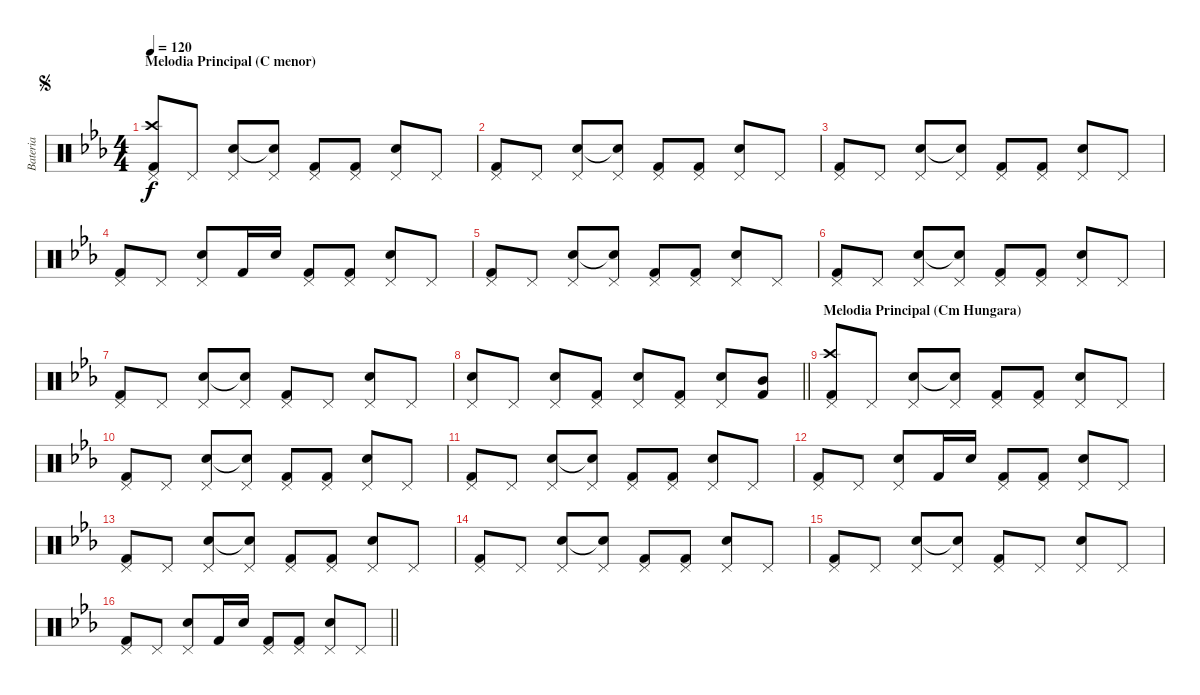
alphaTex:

\track ("Bateria" "Bateria") {instrument percussion}
\staff {score}
\articulation defaults
\ts (4 4)
\section ("" "Melodia Principal (C menor)")
\jump segno
\tempo 120
\clef neutral
\ks eb
("Pedal Hi-Hat (hit)" "Crash high (hit)" "Kick (hit) 2").8{dy f} "Pedal Hi-Hat (hit)".8 ("Pedal Hi-Hat (hit)" "Snare (hit) 2").8 ("Pedal Hi-Hat (hit)" "Snare (hit)"{t}).8 ("Pedal Hi-Hat (hit)" "Kick (hit) 2").8 ("Pedal Hi-Hat (hit)" "Kick (hit) 2").8 ("Pedal Hi-Hat (hit)" "Snare (hit) 2").8 "Pedal Hi-Hat (hit)".8 |
("Pedal Hi-Hat (hit)" "Kick (hit) 2").8 "Pedal Hi-Hat (hit)".8 ("Pedal Hi-Hat (hit)" "Snare (hit) 2").8 ("Pedal Hi-Hat (hit)" "Snare (hit)"{t}).8 ("Pedal Hi-Hat (hit)" "Kick (hit) 2").8 ("Pedal Hi-Hat (hit)" "Kick (hit) 2").8 ("Pedal Hi-Hat (hit)" "Snare (hit) 2").8 "Pedal Hi-Hat (hit)".8 |
("Pedal Hi-Hat (hit)" "Kick (hit) 2").8 "Pedal Hi-Hat (hit)".8 ("Pedal Hi-Hat (hit)" "Snare (hit) 2").8 ("Pedal Hi-Hat (hit)" "Snare (hit)"{t}).8 ("Pedal Hi-Hat (hit)" "Kick (hit) 2").8 ("Pedal Hi-Hat (hit)" "Kick (hit) 2").8 ("Pedal Hi-Hat (hit)" "Snare (hit) 2").8 "Pedal Hi-Hat (hit)".8 |
("Pedal Hi-Hat (hit)" "Kick (hit) 2").8 "Pedal Hi-Hat (hit)".8 ("Pedal Hi-Hat (hit)" "Snare (hit) 2").8 "Kick (hit) 2".16 "Snare (hit) 2".16 ("Pedal Hi-Hat (hit)" "Kick (hit) 2").8 ("Pedal Hi-Hat (hit)" "Kick (hit) 2").8 ("Pedal Hi-Hat (hit)" "Snare (hit) 2").8 "Pedal Hi-Hat (hit)".8 |
("Pedal Hi-Hat (hit)" "Kick (hit) 2").8 "Pedal Hi-Hat (hit)".8 ("Pedal Hi-Hat (hit)" "Snare (hit) 2").8 ("Pedal Hi-Hat (hit)" "Snare (hit)"{t}).8 ("Pedal Hi-Hat (hit)" "Kick (hit) 2").8 ("Pedal Hi-Hat (hit)" "Kick (hit) 2").8 ("Pedal Hi-Hat (hit)" "Snare (hit) 2").8 "Pedal Hi-Hat (hit)".8 |
("Pedal Hi-Hat (hit)" "Kick (hit) 2").8 "Pedal Hi-Hat (hit)".8 ("Pedal Hi-Hat (hit)" "Snare (hit) 2").8 ("Pedal Hi-Hat (hit)" "Snare (hit)"{t}).8 ("Pedal Hi-Hat (hit)" "Kick (hit) 2").8 ("Pedal Hi-Hat (hit)" "Kick (hit) 2").8 ("Pedal Hi-Hat (hit)" "Snare (hit) 2").8 "Pedal Hi-Hat (hit)".8 |
("Pedal Hi-Hat (hit)" "Kick (hit) 2").8 "Pedal Hi-Hat (hit)".8 ("Pedal Hi-Hat (hit)" "Snare (hit) 2").8 ("Pedal Hi-Hat (hit)" "Snare (hit)"{t}).8 ("Pedal Hi-Hat (hit)" "Kick (hit) 2").8 "Pedal Hi-Hat (hit)".8 ("Pedal Hi-Hat (hit)" "Snare (hit) 2").8 "Pedal Hi-Hat (hit)".8 |
\barLineRight lightlight
("Pedal Hi-Hat (hit)" "Snare (hit) 2").8 "Pedal Hi-Hat (hit)".8 ("Pedal Hi-Hat (hit)" "Snare (hit) 2").8 ("Pedal Hi-Hat (hit)" "Kick (hit) 2").8 ("Pedal Hi-Hat (hit)" "Snare (hit) 2").8 ("Pedal Hi-Hat (hit)" "Kick (hit) 2").8 ("Pedal Hi-Hat (hit)" "Snare (hit) 2").8 ("Mid Tom (hit)" "Kick (hit) 2").8 |
\section ("" "Melodia Principal (Cm Hungara)")
("Pedal Hi-Hat (hit)" "Crash high (hit)" "Kick (hit) 2").8 "Pedal Hi-Hat (hit)".8 ("Pedal Hi-Hat (hit)" "Snare (hit) 2").8 ("Pedal Hi-Hat (hit)" "Snare (hit)"{t}).8 ("Pedal Hi-Hat (hit)" "Kick (hit) 2").8 ("Pedal Hi-Hat (hit)" "Kick (hit) 2").8 ("Pedal Hi-Hat (hit)" "Snare (hit) 2").8 "Pedal Hi-Hat (hit)".8 |
("Pedal Hi-Hat (hit)" "Kick (hit) 2").8 "Pedal Hi-Hat (hit)".8 ("Pedal Hi-Hat (hit)" "Snare (hit) 2").8 ("Pedal Hi-Hat (hit)" "Snare (hit)"{t}).8 ("Pedal Hi-Hat (hit)" "Kick (hit) 2").8 ("Pedal Hi-Hat (hit)" "Kick (hit) 2").8 ("Pedal Hi-Hat (hit)" "Snare (hit) 2").8 "Pedal Hi-Hat (hit)".8 |
("Pedal Hi-Hat (hit)" "Kick (hit) 2").8 "Pedal Hi-Hat (hit)".8 ("Pedal Hi-Hat (hit)" "Snare (hit) 2").8 ("Pedal Hi-Hat (hit)" "Snare (hit)"{t}).8 ("Pedal Hi-Hat (hit)" "Kick (hit) 2").8 ("Pedal Hi-Hat (hit)" "Kick (hit) 2").8 ("Pedal Hi-Hat (hit)" "Snare (hit) 2").8 "Pedal Hi-Hat (hit)".8 |
("Pedal Hi-Hat (hit)" "Kick (hit) 2").8 "Pedal Hi-Hat (hit)".8 ("Pedal Hi-Hat (hit)" "Snare (hit) 2").8 "Kick (hit) 2".16 "Snare (hit) 2".16 ("Pedal Hi-Hat (hit)" "Kick (hit) 2").8 ("Pedal Hi-Hat (hit)" "Kick (hit) 2").8 ("Pedal Hi-Hat (hit)" "Snare (hit) 2").8 "Pedal Hi-Hat (hit)".8 |
("Pedal Hi-Hat (hit)" "Kick (hit) 2").8 "Pedal Hi-Hat (hit)".8 ("Pedal Hi-Hat (hit)" "Snare (hit) 2").8 ("Pedal Hi-Hat (hit)" "Snare (hit)"{t}).8 ("Pedal Hi-Hat (hit)" "Kick (hit) 2").8 ("Pedal Hi-Hat (hit)" "Kick (hit) 2").8 ("Pedal Hi-Hat (hit)" "Snare (hit) 2").8 "Pedal Hi-Hat (hit)".8 |
("Pedal Hi-Hat (hit)" "Kick (hit) 2").8 "Pedal Hi-Hat (hit)".8 ("Pedal Hi-Hat (hit)" "Snare (hit) 2").8 ("Pedal Hi-Hat (hit)" "Snare (hit)"{t}).8 ("Pedal Hi-Hat (hit)" "Kick (hit) 2").8 ("Pedal Hi-Hat (hit)" "Kick (hit) 2").8 ("Pedal Hi-Hat (hit)" "Snare (hit) 2").8 "Pedal Hi-Hat (hit)".8 |
("Pedal Hi-Hat (hit)" "Kick (hit) 2").8 "Pedal Hi-Hat (hit)".8 ("Pedal Hi-Hat (hit)" "Snare (hit) 2").8 ("Pedal Hi-Hat (hit)" "Snare (hit)"{t}).8 ("Pedal Hi-Hat (hit)" "Kick (hit) 2").8 "Pedal Hi-Hat (hit)".8 ("Pedal Hi-Hat (hit)" "Snare (hit) 2").8 "Pedal Hi-Hat (hit)".8 |
\barLineRight lightlight
("Pedal Hi-Hat (hit)" "Kick (hit) 2").8 "Pedal Hi-Hat (hit)".8 ("Pedal Hi-Hat (hit)" "Snare (hit) 2").8 "Kick (hit) 2".16 "Snare (hit) 2".16 ("Pedal Hi-Hat (hit)" "Kick (hit) 2").8 ("Pedal Hi-Hat (hit)" "Kick (hit) 2").8 ("Pedal Hi-Hat (hit)" "Snare (hit) 2").8 "Pedal Hi-Hat (hit)".8
